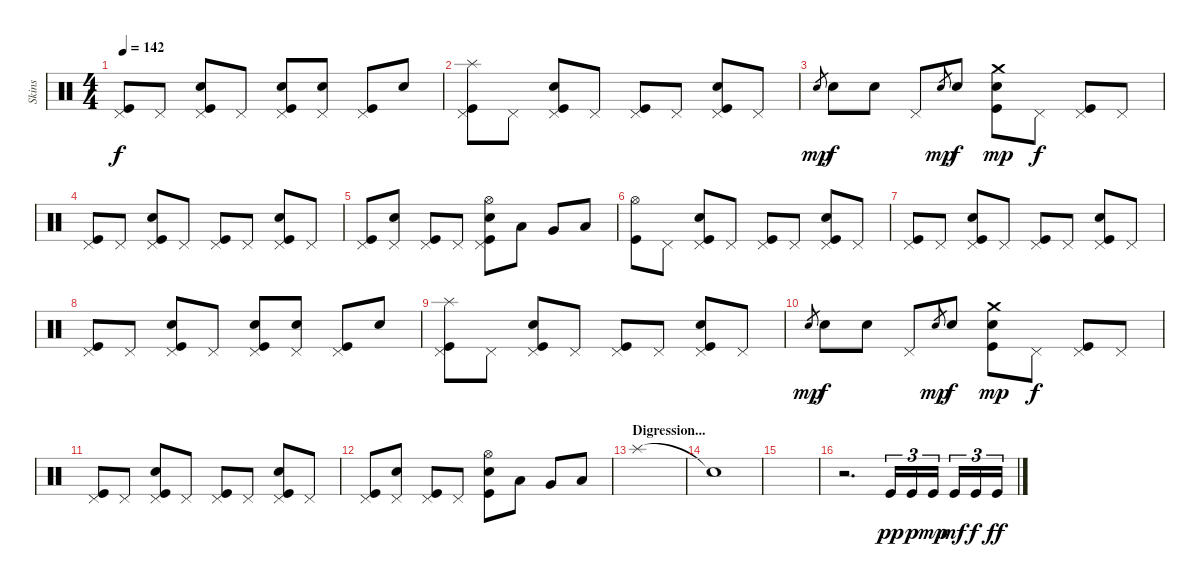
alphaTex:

\track ("Skins" "Skins") {instrument percussion}
\staff {score}
\articulation defaults
\ts (4 4)
\tempo 142
\clef neutral
\ks c
("Pedal Hi-Hat (hit)" "Kick (hit)").8{dy f} "Pedal Hi-Hat (hit)".8 ("Electric Snare (hit)" "Pedal Hi-Hat (hit)" "Kick (hit)").8 "Pedal Hi-Hat (hit)".8 ("Electric Snare (hit)" "Pedal Hi-Hat (hit)" "Kick (hit)").8 ("Electric Snare (hit)" "Pedal Hi-Hat (hit)").8 ("Pedal Hi-Hat (hit)" "Kick (hit)").8 "Snare (hit) 2".8 |
("Splash (hit)" "Pedal Hi-Hat (hit)" "Kick (hit)").8 "Pedal Hi-Hat (hit)".8 ("Electric Snare (hit)" "Pedal Hi-Hat (hit)" "Kick (hit)").8 "Pedal Hi-Hat (hit)".8 ("Pedal Hi-Hat (hit)" "Kick (hit)").8 "Pedal Hi-Hat (hit)".8 ("Snare (hit) 2" "Pedal Hi-Hat (hit)" "Kick (hit)").8 "Pedal Hi-Hat (hit)".8 |
"Snare (hit) 2".8{gr dy mp} "Snare (hit) 2".8{dy f} "Snare (hit) 2".8 "Pedal Hi-Hat (hit)".8 "Snare (hit) 2".8{gr dy mp} "Snare (hit) 2".8{dy f} ("Crash medium (hit)" "Electric Snare (hit)" "Kick (hit)").8{dy mp} "Pedal Hi-Hat (hit)".8{dy f} ("Pedal Hi-Hat (hit)" "Kick (hit)").8 "Pedal Hi-Hat (hit)".8 |
("Pedal Hi-Hat (hit)" "Kick (hit)").8 "Pedal Hi-Hat (hit)".8 ("Electric Snare (hit)" "Pedal Hi-Hat (hit)" "Kick (hit)").8 "Pedal Hi-Hat (hit)".8 ("Pedal Hi-Hat (hit)" "Kick (hit)").8 "Pedal Hi-Hat (hit)".8 ("Snare (hit) 2" "Pedal Hi-Hat (hit)" "Kick (hit)").8 "Pedal Hi-Hat (hit)".8 |
("Pedal Hi-Hat (hit)" "Kick (hit)").8 ("Snare (hit) 2" "Pedal Hi-Hat (hit)").8 ("Pedal Hi-Hat (hit)" "Kick (hit)").8 "Pedal Hi-Hat (hit)".8 ("Hi-Hat (open)" "Electric Snare (hit)" "Pedal Hi-Hat (hit)" "Kick (hit)").8 "Low Tom (hit)".8 "Very Low Tom (hit)".8 "Low Floor Tom (hit)".8 |
("Hi-Hat (open)" "Kick (hit)").8 "Pedal Hi-Hat (hit)".8 ("Electric Snare (hit)" "Pedal Hi-Hat (hit)" "Kick (hit)").8 "Pedal Hi-Hat (hit)".8 ("Pedal Hi-Hat (hit)" "Kick (hit)").8 "Pedal Hi-Hat (hit)".8 ("Snare (hit) 2" "Pedal Hi-Hat (hit)" "Kick (hit)").8 "Pedal Hi-Hat (hit)".8 |
("Pedal Hi-Hat (hit)" "Kick (hit)").8 "Pedal Hi-Hat (hit)".8 ("Electric Snare (hit)" "Pedal Hi-Hat (hit)" "Kick (hit)").8 "Pedal Hi-Hat (hit)".8 ("Pedal Hi-Hat (hit)" "Kick (hit)").8 "Pedal Hi-Hat (hit)".8 ("Snare (hit) 2" "Pedal Hi-Hat (hit)" "Kick (hit)").8 "Pedal Hi-Hat (hit)".8 |
("Pedal Hi-Hat (hit)" "Kick (hit)").8 "Pedal Hi-Hat (hit)".8 ("Electric Snare (hit)" "Pedal Hi-Hat (hit)" "Kick (hit)").8 "Pedal Hi-Hat (hit)".8 ("Electric Snare (hit)" "Pedal Hi-Hat (hit)" "Kick (hit)").8 ("Electric Snare (hit)" "Pedal Hi-Hat (hit)").8 ("Pedal Hi-Hat (hit)" "Kick (hit)").8 "Snare (hit) 2".8 |
("Splash (hit)" "Pedal Hi-Hat (hit)" "Kick (hit)").8 "Pedal Hi-Hat (hit)".8 ("Electric Snare (hit)" "Pedal Hi-Hat (hit)" "Kick (hit)").8 "Pedal Hi-Hat (hit)".8 ("Pedal Hi-Hat (hit)" "Kick (hit)").8 "Pedal Hi-Hat (hit)".8 ("Snare (hit) 2" "Pedal Hi-Hat (hit)" "Kick (hit)").8 "Pedal Hi-Hat (hit)".8 |
"Snare (hit) 2".8{gr dy mp} "Snare (hit) 2".8{dy f} "Snare (hit) 2".8 "Pedal Hi-Hat (hit)".8 "Snare (hit) 2".8{gr dy mp} "Snare (hit) 2".8{dy f} ("Crash medium (hit)" "Electric Snare (hit)" "Kick (hit)").8{dy mp} "Pedal Hi-Hat (hit)".8{dy f} ("Pedal Hi-Hat (hit)" "Kick (hit)").8 "Pedal Hi-Hat (hit)".8 |
("Pedal Hi-Hat (hit)" "Kick (hit)").8 "Pedal Hi-Hat (hit)".8 ("Electric Snare (hit)" "Pedal Hi-Hat (hit)" "Kick (hit)").8 "Pedal Hi-Hat (hit)".8 ("Pedal Hi-Hat (hit)" "Kick (hit)").8 "Pedal Hi-Hat (hit)".8 ("Snare (hit) 2" "Pedal Hi-Hat (hit)" "Kick (hit)").8 "Pedal Hi-Hat (hit)".8 |
("Pedal Hi-Hat (hit)" "Kick (hit)").8 ("Snare (hit) 2" "Pedal Hi-Hat (hit)").8 ("Pedal Hi-Hat (hit)" "Kick (hit)").8 "Pedal Hi-Hat (hit)".8 ("Hi-Hat (open)" "Electric Snare (hit)" "Kick (hit)").8 "Low Tom (hit)".8 "Very Low Tom (hit)".8 "Low Floor Tom (hit)".8 |
\section ("" "Digression...")
"Splash (hit)".1 |
"Snare (hit)"{t}.1 |
|
r.2{d} "Kick (hit)".16{tu (3 2) dy pp} "Kick (hit)".16{tu (3 2) dy p} "Kick (hit)".16{tu (3 2) dy mp} "Kick (hit)".16{tu (3 2) dy mf} "Kick (hit)".16{tu (3 2) dy f} "Kick (hit)".16{tu (3 2) dy ff}
